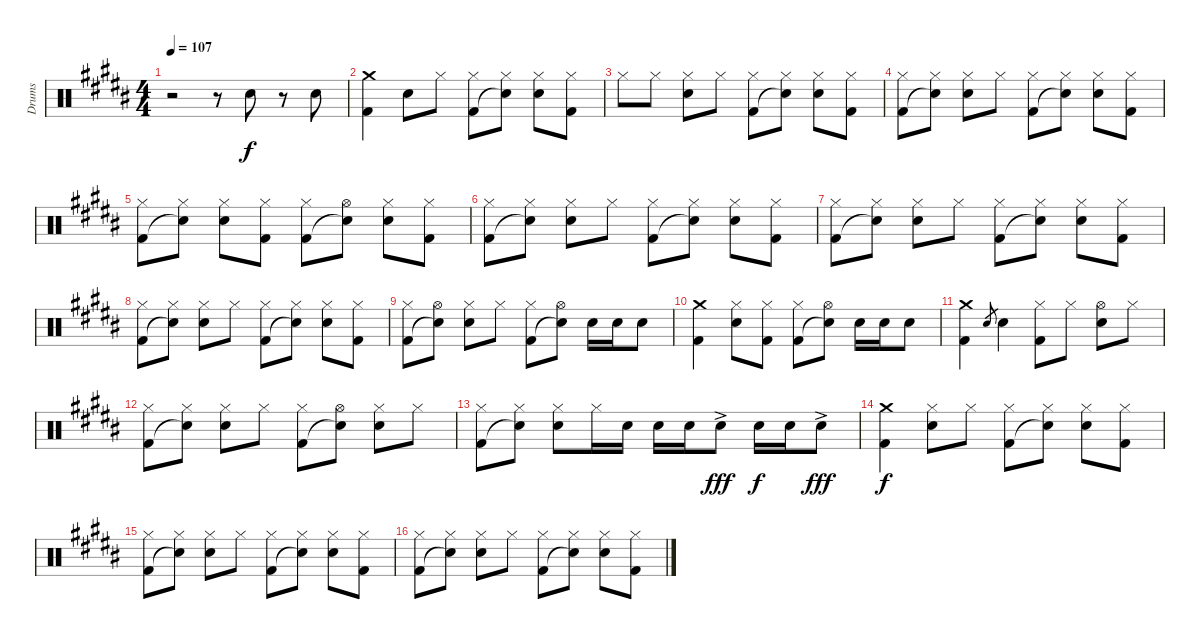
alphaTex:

\track ("Drums" "Drums") {instrument percussion}
\staff {score}
\articulation defaults
\ts (4 4)
\tempo 107
\clef neutral
\ks b
r.2{dy f} r.8 "Snare (hit) 2".8 r.8 "Snare (hit) 2".8 |
("Crash medium (hit)" "Kick (hit) 2").4 "Snare (hit) 2".8 "Hi-Hat (closed)".8 ("Hi-Hat (closed)" "Kick (hit) 2").8 ("Hi-Hat (closed)" "Snare (hit)"{t}).8 ("Hi-Hat (closed)" "Snare (hit) 2").8 ("Hi-Hat (closed)" "Kick (hit) 2").8 |
"Hi-Hat (closed)".8 "Hi-Hat (closed)".8 ("Hi-Hat (closed)" "Snare (hit) 2").8 "Hi-Hat (closed)".8 ("Hi-Hat (closed)" "Kick (hit) 2").8 ("Hi-Hat (closed)" "Snare (hit)"{t}).8 ("Hi-Hat (closed)" "Snare (hit) 2").8 ("Hi-Hat (closed)" "Kick (hit) 2").8 |
("Hi-Hat (closed)" "Kick (hit) 2").8 ("Hi-Hat (closed)" "Snare (hit)"{t}).8 ("Hi-Hat (closed)" "Snare (hit) 2").8 "Hi-Hat (closed)".8 ("Hi-Hat (closed)" "Kick (hit) 2").8 ("Hi-Hat (closed)" "Snare (hit)"{t}).8 ("Hi-Hat (closed)" "Snare (hit) 2").8 ("Hi-Hat (closed)" "Kick (hit) 2").8 |
("Hi-Hat (closed)" "Kick (hit) 2").8 ("Hi-Hat (closed)" "Snare (hit)"{t}).8 ("Hi-Hat (closed)" "Snare (hit) 2").8 ("Hi-Hat (closed)" "Kick (hit) 2").8 ("Hi-Hat (closed)" "Kick (hit) 2").8 ("Hi-Hat (open)" "Snare (hit)"{t}).8 ("Hi-Hat (closed)" "Snare (hit) 2").8 ("Hi-Hat (closed)" "Kick (hit) 2").8 |
("Hi-Hat (closed)" "Kick (hit) 2").8 ("Hi-Hat (closed)" "Snare (hit)"{t}).8 ("Hi-Hat (closed)" "Snare (hit) 2").8 "Hi-Hat (closed)".8 ("Hi-Hat (closed)" "Kick (hit) 2").8 ("Hi-Hat (closed)" "Snare (hit)"{t}).8 ("Hi-Hat (closed)" "Snare (hit) 2").8 ("Hi-Hat (closed)" "Kick (hit) 2").8 |
("Hi-Hat (closed)" "Kick (hit) 2").8 ("Hi-Hat (closed)" "Snare (hit)"{t}).8 ("Hi-Hat (closed)" "Snare (hit) 2").8 "Hi-Hat (closed)".8 ("Hi-Hat (closed)" "Kick (hit) 2").8 ("Hi-Hat (closed)" "Snare (hit)"{t}).8 ("Hi-Hat (closed)" "Snare (hit) 2").8 ("Hi-Hat (closed)" "Kick (hit) 2").8 |
("Hi-Hat (closed)" "Kick (hit) 2").8 ("Hi-Hat (closed)" "Snare (hit)"{t}).8 ("Hi-Hat (closed)" "Snare (hit) 2").8 "Hi-Hat (closed)".8 ("Hi-Hat (closed)" "Kick (hit) 2").8 ("Hi-Hat (closed)" "Snare (hit)"{t}).8 ("Hi-Hat (closed)" "Snare (hit) 2").8 ("Hi-Hat (closed)" "Kick (hit) 2").8 |
("Hi-Hat (closed)" "Kick (hit) 2").8 ("Hi-Hat (open)" "Snare (hit)"{t}).8 ("Hi-Hat (closed)" "Snare (hit) 2").8 "Hi-Hat (closed)".8 ("Hi-Hat (closed)" "Kick (hit) 2").8 ("Hi-Hat (open)" "Snare (hit)"{t}).8 "Snare (hit) 2".16 "Snare (hit) 2".16 "Snare (hit) 2".8 |
("Crash medium (hit)" "Kick (hit) 2").4 ("Hi-Hat (closed)" "Snare (hit) 2").8 ("Hi-Hat (closed)" "Kick (hit) 2").8 ("Hi-Hat (closed)" "Kick (hit) 2").8 ("Hi-Hat (open)" "Snare (hit)"{t}).8 "Snare (hit) 2".16 "Snare (hit) 2".16 "Snare (hit) 2".8 |
("Crash medium (hit)" "Kick (hit) 2").4 "Snare (hit) 2".8{gr} "Snare (hit) 2".4 ("Hi-Hat (closed)" "Kick (hit) 2").8 "Hi-Hat (closed)".8 ("Hi-Hat (open)" "Snare (hit) 2").8 "Hi-Hat (closed)".8 |
("Hi-Hat (closed)" "Kick (hit) 2").8 ("Hi-Hat (closed)" "Snare (hit)"{t}).8 ("Hi-Hat (closed)" "Snare (hit) 2").8 "Hi-Hat (closed)".8 ("Hi-Hat (closed)" "Kick (hit) 2").8 ("Hi-Hat (open)" "Snare (hit)"{t}).8 ("Hi-Hat (closed)" "Snare (hit) 2").8 "Hi-Hat (closed)".8 |
("Hi-Hat (closed)" "Kick (hit) 2").8 ("Hi-Hat (closed)" "Snare (hit)"{t}).8 ("Hi-Hat (closed)" "Snare (hit) 2").8 "Hi-Hat (closed)".16 "Snare (hit) 2".16 "Snare (hit) 2".16 "Snare (hit) 2".16 "Snare (hit) 2"{ac}.8{dy fff} "Snare (hit) 2".16{dy f} "Snare (hit) 2".16 "Snare (hit) 2"{ac}.8{dy fff} |
("Crash medium (hit)" "Kick (hit) 2").4{dy f} ("Hi-Hat (closed)" "Snare (hit) 2").8 "Hi-Hat (closed)".8 ("Hi-Hat (closed)" "Kick (hit) 2").8 ("Hi-Hat (closed)" "Snare (hit)"{t}).8 ("Hi-Hat (closed)" "Snare (hit) 2").8 ("Hi-Hat (closed)" "Kick (hit) 2").8 |
("Hi-Hat (closed)" "Kick (hit) 2").8 ("Hi-Hat (closed)" "Snare (hit)"{t}).8 ("Hi-Hat (closed)" "Snare (hit) 2").8 "Hi-Hat (closed)".8 ("Hi-Hat (closed)" "Kick (hit) 2").8 ("Hi-Hat (closed)" "Snare (hit)"{t}).8 ("Hi-Hat (closed)" "Snare (hit) 2").8 ("Hi-Hat (closed)" "Kick (hit) 2").8 |
("Hi-Hat (closed)" "Kick (hit) 2").8 ("Hi-Hat (closed)" "Snare (hit)"{t}).8 ("Hi-Hat (closed)" "Snare (hit) 2").8 "Hi-Hat (closed)".8 ("Hi-Hat (closed)" "Kick (hit) 2").8 ("Hi-Hat (closed)" "Snare (hit)"{t}).8 ("Hi-Hat (closed)" "Snare (hit) 2").8 ("Hi-Hat (closed)" "Kick (hit) 2").8
